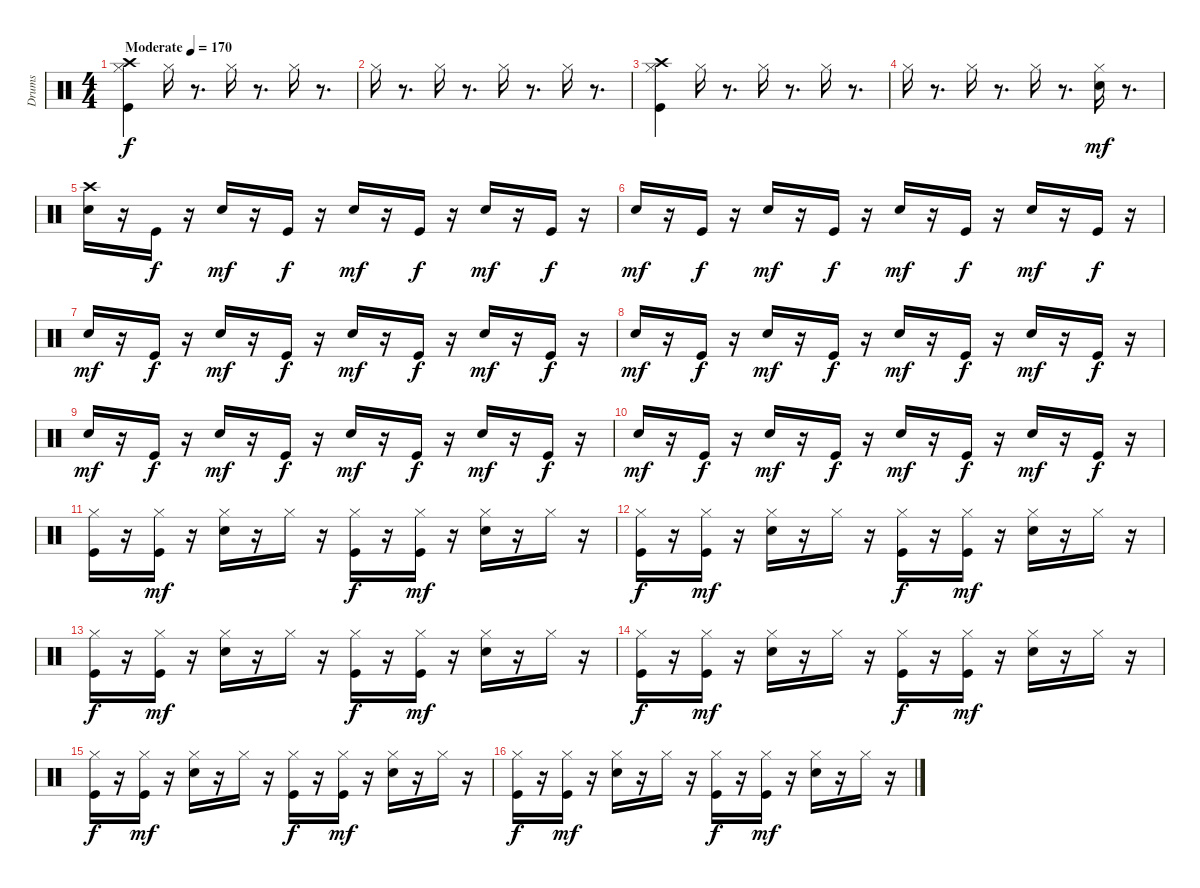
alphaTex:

\track ("Drums" "Drums") {instrument percussion}
\staff {score}
\articulation defaults
\ts (4 4)
\tempo (170 "Moderate")
\clef neutral
\ks c
("Crash high (hit)" "Hi-Hat (closed)" "Kick (hit)").4{dy f} "Hi-Hat (closed)".16 r.8{d} "Hi-Hat (closed)".16 r.8{d} "Hi-Hat (closed)".16 r.8{d} |
"Hi-Hat (closed)".16 r.8{d} "Hi-Hat (closed)".16 r.8{d} "Hi-Hat (closed)".16 r.8{d} "Hi-Hat (closed)".16 r.8{d} |
("Hi-Hat (closed)" "Crash high (hit)" "Kick (hit)").4 "Hi-Hat (closed)".16 r.8{d} "Hi-Hat (closed)".16 r.8{d} "Hi-Hat (closed)".16 r.8{d} |
"Hi-Hat (closed)".16 r.8{d} "Hi-Hat (closed)".16 r.8{d} "Hi-Hat (closed)".16 r.8{d} ("Hi-Hat (closed)" "Electric Snare (hit)").16{dy mf} r.8{d} |
("Crash high (hit)" "Electric Snare (hit)").16 r.16 "Kick (hit)".16{dy f} r.16 "Electric Snare (hit)".16{dy mf} r.16 "Kick (hit)".16{dy f} r.16 "Electric Snare (hit)".16{dy mf} r.16 "Kick (hit)".16{dy f} r.16 "Electric Snare (hit)".16{dy mf} r.16 "Kick (hit)".16{dy f} r.16 |
"Electric Snare (hit)".16{dy mf} r.16 "Kick (hit)".16{dy f} r.16 "Electric Snare (hit)".16{dy mf} r.16 "Kick (hit)".16{dy f} r.16 "Electric Snare (hit)".16{dy mf} r.16 "Kick (hit)".16{dy f} r.16 "Electric Snare (hit)".16{dy mf} r.16 "Kick (hit)".16{dy f} r.16 |
"Electric Snare (hit)".16{dy mf} r.16 "Kick (hit)".16{dy f} r.16 "Electric Snare (hit)".16{dy mf} r.16 "Kick (hit)".16{dy f} r.16 "Electric Snare (hit)".16{dy mf} r.16 "Kick (hit)".16{dy f} r.16 "Electric Snare (hit)".16{dy mf} r.16 "Kick (hit)".16{dy f} r.16 |
"Electric Snare (hit)".16{dy mf} r.16 "Kick (hit)".16{dy f} r.16 "Electric Snare (hit)".16{dy mf} r.16 "Kick (hit)".16{dy f} r.16 "Electric Snare (hit)".16{dy mf} r.16 "Kick (hit)".16{dy f} r.16 "Electric Snare (hit)".16{dy mf} r.16 "Kick (hit)".16{dy f} r.16 |
"Electric Snare (hit)".16{dy mf} r.16 "Kick (hit)".16{dy f} r.16 "Electric Snare (hit)".16{dy mf} r.16 "Kick (hit)".16{dy f} r.16 "Electric Snare (hit)".16{dy mf} r.16 "Kick (hit)".16{dy f} r.16 "Electric Snare (hit)".16{dy mf} r.16 "Kick (hit)".16{dy f} r.16 |
"Electric Snare (hit)".16{dy mf} r.16 "Kick (hit)".16{dy f} r.16 "Electric Snare (hit)".16{dy mf} r.16 "Kick (hit)".16{dy f} r.16 "Electric Snare (hit)".16{dy mf} r.16 "Kick (hit)".16{dy f} r.16 "Electric Snare (hit)".16{dy mf} r.16 "Kick (hit)".16{dy f} r.16 |
("Hi-Hat (closed)" "Kick (hit)").16 r.16 ("Hi-Hat (closed)" "Kick (hit)").16{dy mf} r.16 ("Hi-Hat (closed)" "Electric Snare (hit)").16 r.16 "Hi-Hat (closed)".16 r.16 ("Hi-Hat (closed)" "Kick (hit)").16{dy f} r.16 ("Hi-Hat (closed)" "Kick (hit)").16{dy mf} r.16 ("Hi-Hat (closed)" "Electric Snare (hit)").16 r.16 "Hi-Hat (closed)".16 r.16 |
("Hi-Hat (closed)" "Kick (hit)").16{dy f} r.16 ("Hi-Hat (closed)" "Kick (hit)").16{dy mf} r.16 ("Hi-Hat (closed)" "Electric Snare (hit)").16 r.16 "Hi-Hat (closed)".16 r.16 ("Hi-Hat (closed)" "Kick (hit)").16{dy f} r.16 ("Hi-Hat (closed)" "Kick (hit)").16{dy mf} r.16 ("Hi-Hat (closed)" "Electric Snare (hit)").16 r.16 "Hi-Hat (closed)".16 r.16 |
("Hi-Hat (closed)" "Kick (hit)").16{dy f} r.16 ("Hi-Hat (closed)" "Kick (hit)").16{dy mf} r.16 ("Hi-Hat (closed)" "Electric Snare (hit)").16 r.16 "Hi-Hat (closed)".16 r.16 ("Hi-Hat (closed)" "Kick (hit)").16{dy f} r.16 ("Hi-Hat (closed)" "Kick (hit)").16{dy mf} r.16 ("Hi-Hat (closed)" "Electric Snare (hit)").16 r.16 "Hi-Hat (closed)".16 r.16 |
("Hi-Hat (closed)" "Kick (hit)").16{dy f} r.16 ("Hi-Hat (closed)" "Kick (hit)").16{dy mf} r.16 ("Hi-Hat (closed)" "Electric Snare (hit)").16 r.16 "Hi-Hat (closed)".16 r.16 ("Hi-Hat (closed)" "Kick (hit)").16{dy f} r.16 ("Hi-Hat (closed)" "Kick (hit)").16{dy mf} r.16 ("Hi-Hat (closed)" "Electric Snare (hit)").16 r.16 "Hi-Hat (closed)".16 r.16 |
("Hi-Hat (closed)" "Kick (hit)").16{dy f} r.16 ("Hi-Hat (closed)" "Kick (hit)").16{dy mf} r.16 ("Hi-Hat (closed)" "Electric Snare (hit)").16 r.16 "Hi-Hat (closed)".16 r.16 ("Hi-Hat (closed)" "Kick (hit)").16{dy f} r.16 ("Hi-Hat (closed)" "Kick (hit)").16{dy mf} r.16 ("Hi-Hat (closed)" "Electric Snare (hit)").16 r.16 "Hi-Hat (closed)".16 r.16 |
("Hi-Hat (closed)" "Kick (hit)").16{dy f} r.16 ("Hi-Hat (closed)" "Kick (hit)").16{dy mf} r.16 ("Hi-Hat (closed)" "Electric Snare (hit)").16 r.16 "Hi-Hat (closed)".16 r.16 ("Hi-Hat (closed)" "Kick (hit)").16{dy f} r.16 ("Hi-Hat (closed)" "Kick (hit)").16{dy mf} r.16 ("Hi-Hat (closed)" "Electric Snare (hit)").16 r.16 "Hi-Hat (closed)".16 r.16
